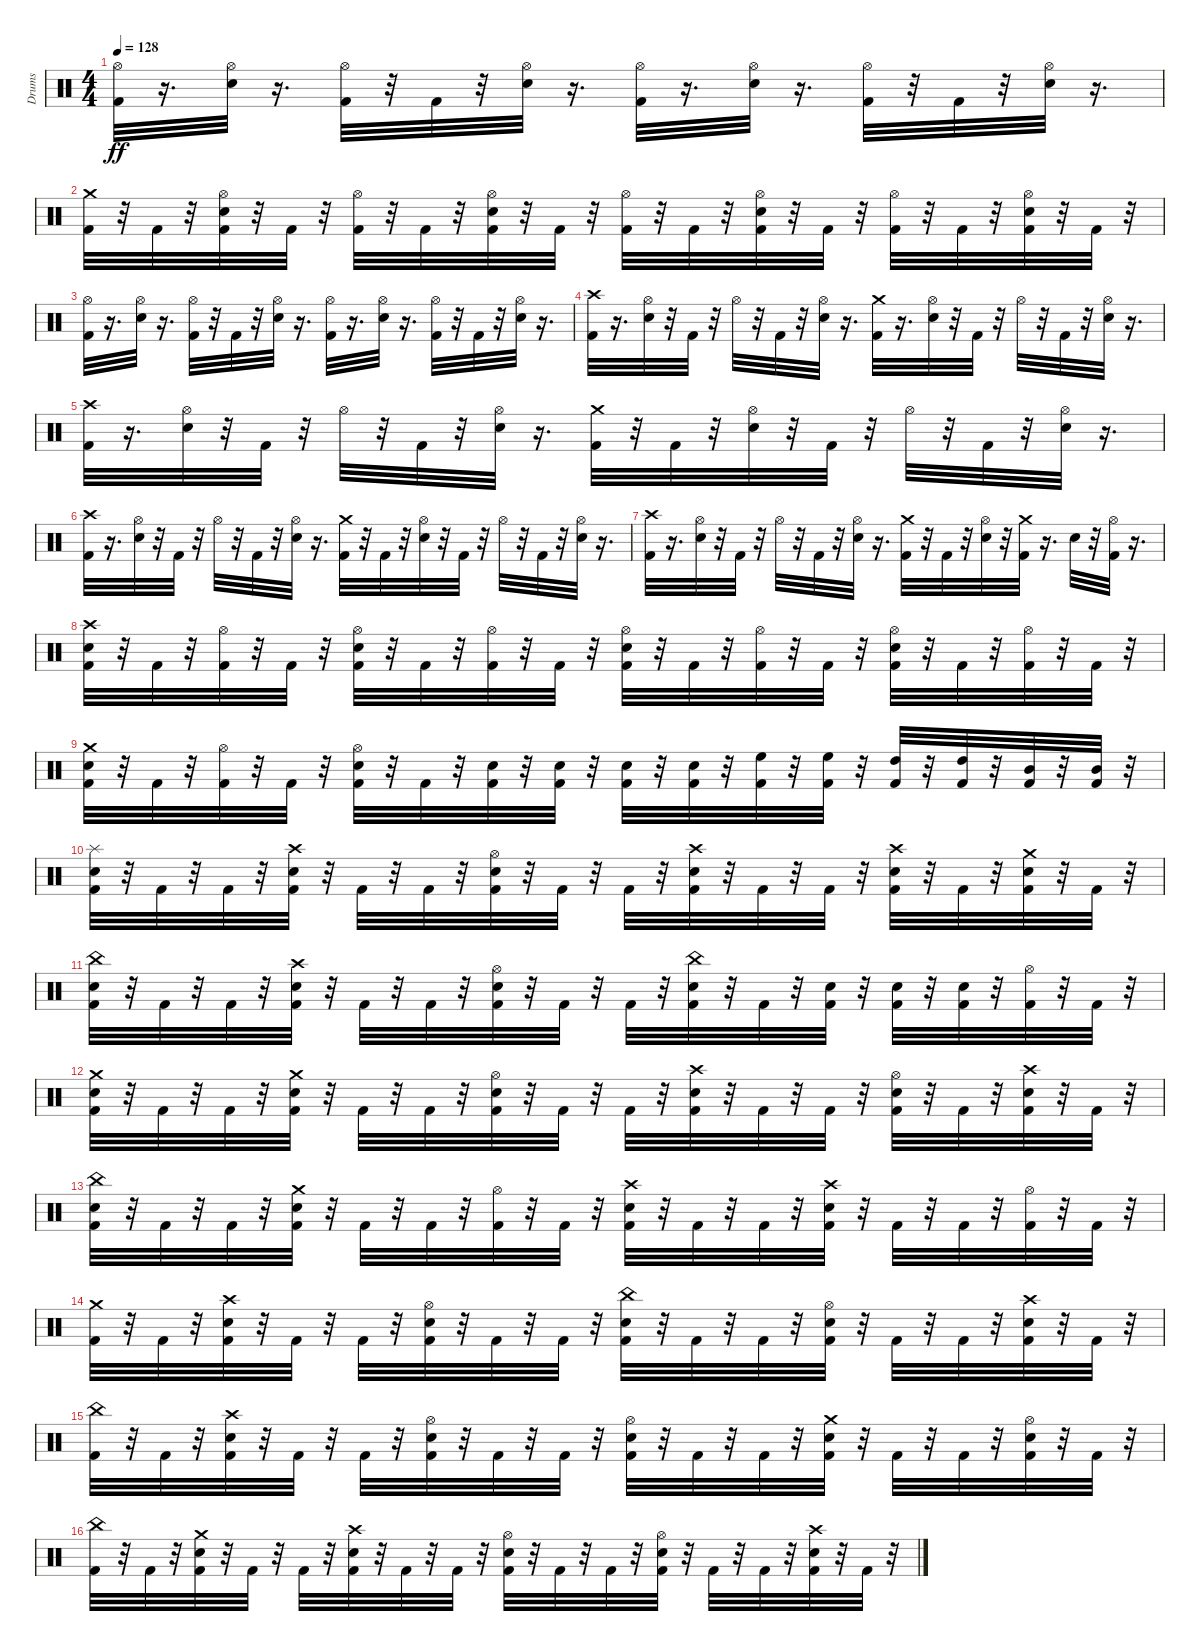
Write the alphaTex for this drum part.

\track ("Drums" "Drums") {instrument percussion}
\staff {score}
\articulation defaults
\ts (4 4)
\tempo 128
\clef neutral
\ks c
("Hi-Hat (open)" "Kick (hit) 2").32{dy ff} r.16{d} ("Snare (hit) 2" "Hi-Hat (open)").32 r.16{d} ("Kick (hit) 2" "Hi-Hat (open)").32 r.32 "Kick (hit) 2".32 r.32 ("Snare (hit) 2" "Hi-Hat (open)").32 r.16{d} ("Kick (hit) 2" "Hi-Hat (open)").32 r.16{d} ("Snare (hit) 2" "Hi-Hat (open)").32 r.16{d} ("Hi-Hat (open)" "Kick (hit) 2").32 r.32 "Kick (hit) 2".32 r.32 ("Snare (hit) 2" "Hi-Hat (open)").32 r.16{d} |
("Crash medium (hit)" "Kick (hit) 2").32 r.32 "Kick (hit) 2".32 r.32 ("Snare (hit) 2" "Kick (hit) 2" "Hi-Hat (open)").32 r.32 "Kick (hit) 2".32 r.32 ("Kick (hit) 2" "Hi-Hat (open)").32 r.32 "Kick (hit) 2".32 r.32 ("Snare (hit) 2" "Kick (hit) 2" "Hi-Hat (open)").32 r.32 "Kick (hit) 2".32 r.32 ("Kick (hit) 2" "Hi-Hat (open)").32 r.32 "Kick (hit) 2".32 r.32 ("Snare (hit) 2" "Kick (hit) 2" "Hi-Hat (open)").32 r.32 "Kick (hit) 2".32 r.32 ("Kick (hit) 2" "Hi-Hat (open)").32 r.32 "Kick (hit) 2".32 r.32 ("Snare (hit) 2" "Kick (hit) 2" "Hi-Hat (open)").32 r.32 "Kick (hit) 2".32 r.32 |
("Hi-Hat (open)" "Kick (hit) 2").32 r.16{d} ("Snare (hit) 2" "Hi-Hat (open)").32 r.16{d} ("Kick (hit) 2" "Hi-Hat (open)").32 r.32 "Kick (hit) 2".32 r.32 ("Snare (hit) 2" "Hi-Hat (open)").32 r.16{d} ("Kick (hit) 2" "Hi-Hat (open)").32 r.16{d} ("Snare (hit) 2" "Hi-Hat (open)").32 r.16{d} ("Kick (hit) 2" "Hi-Hat (open)").32 r.32 "Kick (hit) 2".32 r.32 ("Snare (hit) 2" "Hi-Hat (open)").32 r.16{d} |
("Kick (hit) 2" "Crash high (hit)").32 r.16{d} ("Hi-Hat (open)" "Snare (hit) 2").32 r.32 "Kick (hit) 2".32 r.32 "Hi-Hat (open)".32 r.32 "Kick (hit) 2".32 r.32 ("Hi-Hat (open)" "Snare (hit) 2").32 r.16{d} ("Crash medium (hit)" "Kick (hit) 2").32 r.16{d} ("Hi-Hat (open)" "Snare (hit) 2").32 r.32 "Kick (hit) 2".32 r.32 "Hi-Hat (open)".32 r.32 "Kick (hit) 2".32 r.32 ("Hi-Hat (open)" "Snare (hit) 2").32 r.16{d} |
("Kick (hit) 2" "Crash high (hit)").32 r.16{d} ("Hi-Hat (open)" "Snare (hit) 2").32 r.32 "Kick (hit) 2".32 r.32 "Hi-Hat (open)".32 r.32 "Kick (hit) 2".32 r.32 ("Hi-Hat (open)" "Snare (hit) 2").32 r.16{d} ("Crash medium (hit)" "Kick (hit) 2").32 r.32 "Kick (hit) 2".32 r.32 ("Hi-Hat (open)" "Snare (hit) 2").32 r.32 "Kick (hit) 2".32 r.32 "Hi-Hat (open)".32 r.32 "Kick (hit) 2".32 r.32 ("Hi-Hat (open)" "Snare (hit) 2").32 r.16{d} |
("Kick (hit) 2" "Crash high (hit)").32 r.16{d} ("Hi-Hat (open)" "Snare (hit) 2").32 r.32 "Kick (hit) 2".32 r.32 "Hi-Hat (open)".32 r.32 "Kick (hit) 2".32 r.32 ("Hi-Hat (open)" "Snare (hit) 2").32 r.16{d} ("Crash medium (hit)" "Kick (hit) 2").32 r.32 "Kick (hit) 2".32 r.32 ("Hi-Hat (open)" "Snare (hit) 2").32 r.32 "Kick (hit) 2".32 r.32 "Hi-Hat (open)".32 r.32 "Kick (hit) 2".32 r.32 ("Hi-Hat (open)" "Snare (hit) 2").32 r.16{d} |
("Kick (hit) 2" "Crash high (hit)").32 r.16{d} ("Hi-Hat (open)" "Snare (hit) 2").32 r.32 "Kick (hit) 2".32 r.32 "Hi-Hat (open)".32 r.32 "Kick (hit) 2".32 r.32 ("Hi-Hat (open)" "Snare (hit) 2").32 r.16{d} ("Crash medium (hit)" "Kick (hit) 2").32 r.32 "Kick (hit) 2".32 r.32 ("Hi-Hat (open)" "Snare (hit) 2").32 r.32 ("Kick (hit) 2" "Crash medium (hit)").32 r.16{d} "Snare (hit) 2".32 r.32 ("Hi-Hat (open)" "Kick (hit) 2").32 r.16{d} |
("Kick (hit) 2" "Crash high (hit)" "Snare (hit) 2").32 r.32 "Kick (hit) 2".32 r.32 ("Kick (hit) 2" "Hi-Hat (open)").32 r.32 "Kick (hit) 2".32 r.32 ("Kick (hit) 2" "Hi-Hat (open)" "Snare (hit) 2").32 r.32 "Kick (hit) 2".32 r.32 ("Kick (hit) 2" "Hi-Hat (open)").32 r.32 "Kick (hit) 2".32 r.32 ("Kick (hit) 2" "Hi-Hat (open)" "Snare (hit) 2").32 r.32 "Kick (hit) 2".32 r.32 ("Kick (hit) 2" "Hi-Hat (open)").32 r.32 "Kick (hit) 2".32 r.32 ("Snare (hit) 2" "Kick (hit) 2" "Hi-Hat (open)").32 r.32 "Kick (hit) 2".32 r.32 ("Kick (hit) 2" "Hi-Hat (open)").32 r.32 "Kick (hit) 2".32 r.32 |
("Kick (hit) 2" "Crash medium (hit)" "Snare (hit) 2").32 r.32 "Kick (hit) 2".32 r.32 ("Kick (hit) 2" "Hi-Hat (open)").32 r.32 "Kick (hit) 2".32 r.32 ("Kick (hit) 2" "Hi-Hat (open)" "Snare (hit) 2").32 r.32 "Kick (hit) 2".32 r.32 ("Kick (hit) 2" "Snare (hit) 2").32 r.32 ("Snare (hit) 2" "Kick (hit) 2").32 r.32 ("Kick (hit) 2" "Snare (hit) 2").32 r.32 ("Kick (hit) 2" "Snare (hit) 2").32 r.32 ("Kick (hit) 2" "High Floor Tom (hit)").32 r.32 ("Kick (hit) 2" "High Floor Tom (hit)").32 r.32 ("Kick (hit) 2" "High Tom (hit)").32 r.32 ("Kick (hit) 2" "High Tom (hit)").32 r.32 ("Kick (hit) 2" "Mid Tom (hit)").32 r.32 ("Kick (hit) 2" "Mid Tom (hit)").32 r.32 |
("Snare (hit) 2" "Splash (hit)" "Kick (hit) 2").32 r.32 "Kick (hit) 2".32 r.32 "Kick (hit) 2".32 r.32 ("Kick (hit) 2" "Snare (hit) 2" "Crash high (hit)").32 r.32 "Kick (hit) 2".32 r.32 "Kick (hit) 2".32 r.32 ("Kick (hit) 2" "Snare (hit) 2" "Hi-Hat (open)").32 r.32 "Kick (hit) 2".32 r.32 "Kick (hit) 2".32 r.32 ("Kick (hit) 2" "Snare (hit) 2" "Crash high (hit)").32 r.32 "Kick (hit) 2".32 r.32 "Kick (hit) 2".32 r.32 ("Kick (hit) 2" "Snare (hit) 2" "Crash high (hit)").32 r.32 "Kick (hit) 2".32 r.32 ("Crash medium (hit)" "Snare (hit) 2" "Kick (hit) 2").32 r.32 "Kick (hit) 2".32 r.32 |
("Snare (hit) 2" "China (hit)" "Kick (hit) 2").32 r.32 "Kick (hit) 2".32 r.32 "Kick (hit) 2".32 r.32 ("Kick (hit) 2" "Snare (hit) 2" "Crash high (hit)").32 r.32 "Kick (hit) 2".32 r.32 "Kick (hit) 2".32 r.32 ("Kick (hit) 2" "Snare (hit) 2" "Hi-Hat (open)").32 r.32 "Kick (hit) 2".32 r.32 "Kick (hit) 2".32 r.32 ("Kick (hit) 2" "Snare (hit) 2" "China (hit)").32 r.32 "Kick (hit) 2".32 r.32 ("Snare (hit) 2" "Kick (hit) 2").32 r.32 ("Kick (hit) 2" "Snare (hit) 2").32 r.32 ("Snare (hit) 2" "Kick (hit) 2").32 r.32 ("Hi-Hat (open)" "Kick (hit) 2").32 r.32 "Kick (hit) 2".32 r.32 |
("Kick (hit) 2" "Snare (hit) 2" "Crash medium (hit)").32 r.32 "Kick (hit) 2".32 r.32 "Kick (hit) 2".32 r.32 ("Kick (hit) 2" "Snare (hit) 2" "Crash medium (hit)").32 r.32 "Kick (hit) 2".32 r.32 "Kick (hit) 2".32 r.32 ("Kick (hit) 2" "Snare (hit) 2" "Hi-Hat (open)").32 r.32 "Kick (hit) 2".32 r.32 "Kick (hit) 2".32 r.32 ("Kick (hit) 2" "Snare (hit) 2" "Crash high (hit)").32 r.32 "Kick (hit) 2".32 r.32 "Kick (hit) 2".32 r.32 ("Kick (hit) 2" "Snare (hit) 2" "Hi-Hat (open)").32 r.32 "Kick (hit) 2".32 r.32 ("Crash high (hit)" "Snare (hit) 2" "Kick (hit) 2").32 r.32 "Kick (hit) 2".32 r.32 |
("China (hit)" "Snare (hit) 2" "Kick (hit) 2").32 r.32 "Kick (hit) 2".32 r.32 "Kick (hit) 2".32 r.32 ("Crash medium (hit)" "Snare (hit) 2" "Kick (hit) 2").32 r.32 "Kick (hit) 2".32 r.32 "Kick (hit) 2".32 r.32 ("Hi-Hat (open)" "Kick (hit) 2").32 r.32 "Kick (hit) 2".32 r.32 ("Crash high (hit)" "Snare (hit) 2" "Kick (hit) 2").32 r.32 "Kick (hit) 2".32 r.32 "Kick (hit) 2".32 r.32 ("Crash high (hit)" "Snare (hit) 2" "Kick (hit) 2").32 r.32 "Kick (hit) 2".32 r.32 "Kick (hit) 2".32 r.32 ("Hi-Hat (open)" "Kick (hit) 2").32 r.32 "Kick (hit) 2".32 r.32 |
("Crash medium (hit)" "Kick (hit) 2").32 r.32 "Kick (hit) 2".32 r.32 ("Snare (hit) 2" "Crash high (hit)" "Kick (hit) 2").32 r.32 "Kick (hit) 2".32 r.32 "Kick (hit) 2".32 r.32 ("Hi-Hat (open)" "Kick (hit) 2" "Snare (hit) 2").32 r.32 "Kick (hit) 2".32 r.32 "Kick (hit) 2".32 r.32 ("China (hit)" "Snare (hit) 2" "Kick (hit) 2").32 r.32 "Kick (hit) 2".32 r.32 "Kick (hit) 2".32 r.32 ("Hi-Hat (open)" "Snare (hit) 2" "Kick (hit) 2").32 r.32 "Kick (hit) 2".32 r.32 "Kick (hit) 2".32 r.32 ("Crash high (hit)" "Snare (hit) 2" "Kick (hit) 2").32 r.32 "Kick (hit) 2".32 r.32 |
("China (hit)" "Kick (hit) 2").32 r.32 "Kick (hit) 2".32 r.32 ("Snare (hit) 2" "Crash high (hit)" "Kick (hit) 2").32 r.32 "Kick (hit) 2".32 r.32 "Kick (hit) 2".32 r.32 ("Hi-Hat (open)" "Kick (hit) 2" "Snare (hit) 2").32 r.32 "Kick (hit) 2".32 r.32 "Kick (hit) 2".32 r.32 ("Hi-Hat (open)" "Snare (hit) 2" "Kick (hit) 2").32 r.32 "Kick (hit) 2".32 r.32 "Kick (hit) 2".32 r.32 ("Crash medium (hit)" "Snare (hit) 2" "Kick (hit) 2").32 r.32 "Kick (hit) 2".32 r.32 "Kick (hit) 2".32 r.32 ("Hi-Hat (open)" "Snare (hit) 2" "Kick (hit) 2").32 r.32 "Kick (hit) 2".32 r.32 |
("China (hit)" "Kick (hit) 2").32 r.32 "Kick (hit) 2".32 r.32 ("Snare (hit) 2" "Crash medium (hit)" "Kick (hit) 2").32 r.32 "Kick (hit) 2".32 r.32 "Kick (hit) 2".32 r.32 ("Crash high (hit)" "Kick (hit) 2" "Snare (hit) 2").32 r.32 "Kick (hit) 2".32 r.32 "Kick (hit) 2".32 r.32 ("Hi-Hat (open)" "Snare (hit) 2" "Kick (hit) 2").32 r.32 "Kick (hit) 2".32 r.32 "Kick (hit) 2".32 r.32 ("Hi-Hat (open)" "Snare (hit) 2" "Kick (hit) 2").32 r.32 "Kick (hit) 2".32 r.32 "Kick (hit) 2".32 r.32 ("Crash high (hit)" "Snare (hit) 2" "Kick (hit) 2").32 r.32 "Kick (hit) 2".32 r.32
